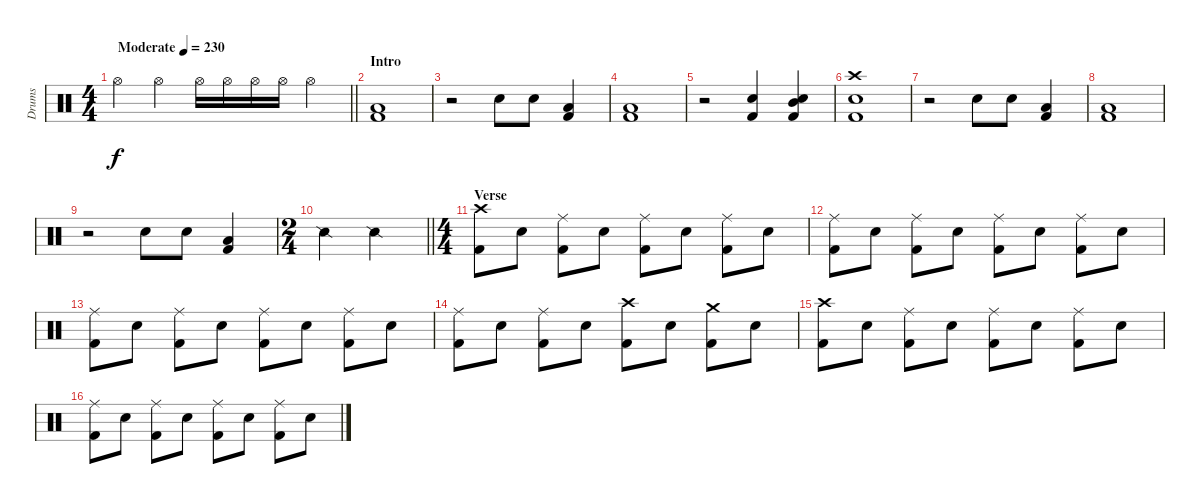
\track ("Drums" "Drums") {instrument percussion}
\staff {score}
\articulation defaults
\ts (4 4)
\tempo (230 "Moderate")
\clef neutral
\barLineRight lightlight
\ks c "Hi-Hat (open)".4{dy f} "Hi-Hat (open)".4 "Hi-Hat (open)".16 "Hi-Hat (open)".16 "Hi-Hat (open)".16 "Hi-Hat (open)".16 "Hi-Hat (open)".4
|
\section ("" "Intro")
("Low Tom (hit)" "Kick (hit) 2").1 |
r.2 "Electric Snare (hit)".8 "Electric Snare (hit)".8 ("Low Tom (hit)" "Kick (hit) 2").4 |
("Low Tom (hit)" "Kick (hit) 2").1 |
r.2 ("Electric Snare (hit)" "Kick (hit) 2").4 ("Mid Tom (hit)" "Electric Snare (hit)" "Kick (hit) 2").4 |
("Crash high (hit)" "Electric Snare (hit)" "Kick (hit) 2").1 |
r.2 "Electric Snare (hit)".8 "Electric Snare (hit)".8 ("Low Tom (hit)" "Kick (hit) 2").4 |
("Low Tom (hit)" "Kick (hit) 2").1 |
r.2 "Electric Snare (hit)".8 "Electric Snare (hit)".8 ("Low Tom (hit)" "Kick (hit) 2").4 |
\ts (2 4)
\barLineRight lightlight "Snare (side stick) 2".4 "Snare (side stick) 2".4
|
\ts (4 4)
\section ("" "Verse")
("Crash high (hit)" "Kick (hit) 2").8 "Electric Snare (hit)".8 ("Ride (middle)" "Kick (hit) 2").8 "Electric Snare (hit)".8 ("Ride (middle)" "Kick (hit) 2").8 "Electric Snare (hit)".8 ("Ride (middle)" "Kick (hit) 2").8 "Electric Snare (hit)".8 |
("Ride (middle)" "Kick (hit) 2").8 "Electric Snare (hit)".8 ("Ride (middle)" "Kick (hit) 2").8 "Electric Snare (hit)".8 ("Ride (middle)" "Kick (hit) 2").8 "Electric Snare (hit)".8 ("Ride (middle)" "Kick (hit) 2").8 "Electric Snare (hit)".8 |
("Ride (middle)" "Kick (hit) 2").8 "Electric Snare (hit)".8 ("Ride (middle)" "Kick (hit) 2").8 "Electric Snare (hit)".8 ("Ride (middle)" "Kick (hit) 2").8 "Electric Snare (hit)".8 ("Ride (middle)" "Kick (hit) 2").8 "Electric Snare (hit)".8 |
("Ride (middle)" "Kick (hit) 2").8 "Electric Snare (hit)".8 ("Ride (middle)" "Kick (hit) 2").8 "Electric Snare (hit)".8 ("Crash high (hit)" "Kick (hit) 2").8 "Electric Snare (hit)".8 ("Crash medium (hit)" "Kick (hit) 2").8 "Electric Snare (hit)".8 |
("Crash high (hit)" "Kick (hit) 2").8 "Electric Snare (hit)".8 ("Ride (middle)" "Kick (hit) 2").8 "Electric Snare (hit)".8 ("Ride (middle)" "Kick (hit) 2").8 "Electric Snare (hit)".8 ("Ride (middle)" "Kick (hit) 2").8 "Electric Snare (hit)".8 |
("Ride (middle)" "Kick (hit) 2").8 "Electric Snare (hit)".8 ("Ride (middle)" "Kick (hit) 2").8 "Electric Snare (hit)".8 ("Ride (middle)" "Kick (hit) 2").8 "Electric Snare (hit)".8 ("Ride (middle)" "Kick (hit) 2").8 "Electric Snare (hit)".8
